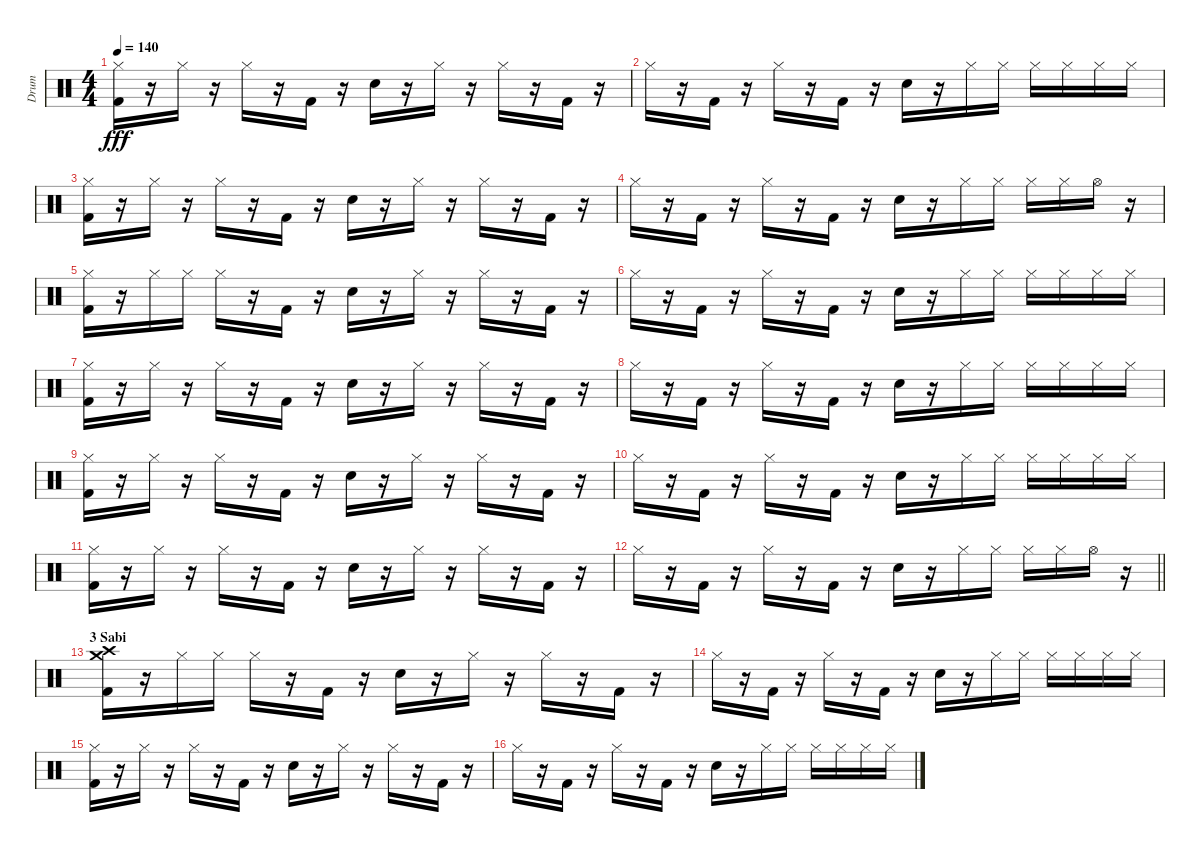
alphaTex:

\track ("Drum" "Drum") {instrument percussion}
\staff {score}
\articulation defaults
\ts (4 4)
\tempo 140
\clef neutral
\ks c
("Hi-Hat (closed)" "Kick (hit) 2").16{dy fff} r.16 "Hi-Hat (closed)".16 r.16 "Hi-Hat (closed)".16 r.16 "Kick (hit) 2".16 r.16 "Electric Snare (hit)".16 r.16 "Hi-Hat (closed)".16 r.16 "Hi-Hat (closed)".16 r.16 "Kick (hit) 2".16 r.16 |
"Hi-Hat (closed)".16 r.16 "Kick (hit) 2".16 r.16 "Hi-Hat (closed)".16 r.16 "Kick (hit) 2".16 r.16 "Electric Snare (hit)".16 r.16 "Hi-Hat (closed)".16 "Hi-Hat (closed)".16 "Hi-Hat (closed)".16 "Hi-Hat (closed)".16 "Hi-Hat (closed)".16 "Hi-Hat (closed)".16 |
("Hi-Hat (closed)" "Kick (hit) 2").16 r.16 "Hi-Hat (closed)".16 r.16 "Hi-Hat (closed)".16 r.16 "Kick (hit) 2".16 r.16 "Electric Snare (hit)".16 r.16 "Hi-Hat (closed)".16 r.16 "Hi-Hat (closed)".16 r.16 "Kick (hit) 2".16 r.16 |
"Hi-Hat (closed)".16 r.16 "Kick (hit) 2".16 r.16 "Hi-Hat (closed)".16 r.16 "Kick (hit) 2".16 r.16 "Electric Snare (hit)".16 r.16 "Hi-Hat (closed)".16 "Hi-Hat (closed)".16 "Hi-Hat (closed)".16 "Hi-Hat (closed)".16 "Hi-Hat (open)".16 r.16 |
("Hi-Hat (closed)" "Kick (hit) 2").16 r.16 "Hi-Hat (closed)".16 "Hi-Hat (closed)".16 "Hi-Hat (closed)".16 r.16 "Kick (hit) 2".16 r.16 "Electric Snare (hit)".16 r.16 "Hi-Hat (closed)".16 r.16 "Hi-Hat (closed)".16 r.16 "Kick (hit) 2".16 r.16 |
"Hi-Hat (closed)".16 r.16 "Kick (hit) 2".16 r.16 "Hi-Hat (closed)".16 r.16 "Kick (hit) 2".16 r.16 "Electric Snare (hit)".16 r.16 "Hi-Hat (closed)".16 "Hi-Hat (closed)".16 "Hi-Hat (closed)".16 "Hi-Hat (closed)".16 "Hi-Hat (closed)".16 "Hi-Hat (closed)".16 |
("Hi-Hat (closed)" "Kick (hit) 2").16 r.16 "Hi-Hat (closed)".16 r.16 "Hi-Hat (closed)".16 r.16 "Kick (hit) 2".16 r.16 "Electric Snare (hit)".16 r.16 "Hi-Hat (closed)".16 r.16 "Hi-Hat (closed)".16 r.16 "Kick (hit) 2".16 r.16 |
"Hi-Hat (closed)".16 r.16 "Kick (hit) 2".16 r.16 "Hi-Hat (closed)".16 r.16 "Kick (hit) 2".16 r.16 "Electric Snare (hit)".16 r.16 "Hi-Hat (closed)".16 "Hi-Hat (closed)".16 "Hi-Hat (closed)".16 "Hi-Hat (closed)".16 "Hi-Hat (closed)".16 "Hi-Hat (closed)".16 |
("Hi-Hat (closed)" "Kick (hit) 2").16 r.16 "Hi-Hat (closed)".16 r.16 "Hi-Hat (closed)".16 r.16 "Kick (hit) 2".16 r.16 "Electric Snare (hit)".16 r.16 "Hi-Hat (closed)".16 r.16 "Hi-Hat (closed)".16 r.16 "Kick (hit) 2".16 r.16 |
"Hi-Hat (closed)".16 r.16 "Kick (hit) 2".16 r.16 "Hi-Hat (closed)".16 r.16 "Kick (hit) 2".16 r.16 "Electric Snare (hit)".16 r.16 "Hi-Hat (closed)".16 "Hi-Hat (closed)".16 "Hi-Hat (closed)".16 "Hi-Hat (closed)".16 "Hi-Hat (closed)".16 "Hi-Hat (closed)".16 |
("Hi-Hat (closed)" "Kick (hit) 2").16 r.16 "Hi-Hat (closed)".16 r.16 "Hi-Hat (closed)".16 r.16 "Kick (hit) 2".16 r.16 "Electric Snare (hit)".16 r.16 "Hi-Hat (closed)".16 r.16 "Hi-Hat (closed)".16 r.16 "Kick (hit) 2".16 r.16 |
\barLineRight lightlight "Hi-Hat (closed)".16
r.16 "Kick (hit) 2".16 r.16 "Hi-Hat (closed)".16 r.16 "Kick (hit) 2".16 r.16 "Electric Snare (hit)".16 r.16 "Hi-Hat (closed)".16 "Hi-Hat (closed)".16 "Hi-Hat (closed)".16 "Hi-Hat (closed)".16 "Hi-Hat (open)".16 r.16 |
\section ("" "3 Sabi")
("Crash medium (hit)" "Crash high (hit)" "Kick (hit) 2").16 r.16 "Hi-Hat (closed)".16 "Hi-Hat (closed)".16 "Hi-Hat (closed)".16 r.16 "Kick (hit) 2".16 r.16 "Electric Snare (hit)".16 r.16 "Hi-Hat (closed)".16 r.16 "Hi-Hat (closed)".16 r.16 "Kick (hit) 2".16 r.16 |
"Hi-Hat (closed)".16 r.16 "Kick (hit) 2".16 r.16 "Hi-Hat (closed)".16 r.16 "Kick (hit) 2".16 r.16 "Electric Snare (hit)".16 r.16 "Hi-Hat (closed)".16 "Hi-Hat (closed)".16 "Hi-Hat (closed)".16 "Hi-Hat (closed)".16 "Hi-Hat (closed)".16 "Hi-Hat (closed)".16 |
("Hi-Hat (closed)" "Kick (hit) 2").16 r.16 "Hi-Hat (closed)".16 r.16 "Hi-Hat (closed)".16 r.16 "Kick (hit) 2".16 r.16 "Electric Snare (hit)".16 r.16 "Hi-Hat (closed)".16 r.16 "Hi-Hat (closed)".16 r.16 "Kick (hit) 2".16 r.16 |
"Hi-Hat (closed)".16 r.16 "Kick (hit) 2".16 r.16 "Hi-Hat (closed)".16 r.16 "Kick (hit) 2".16 r.16 "Electric Snare (hit)".16 r.16 "Hi-Hat (closed)".16 "Hi-Hat (closed)".16 "Hi-Hat (closed)".16 "Hi-Hat (closed)".16 "Hi-Hat (closed)".16 "Hi-Hat (closed)".16
